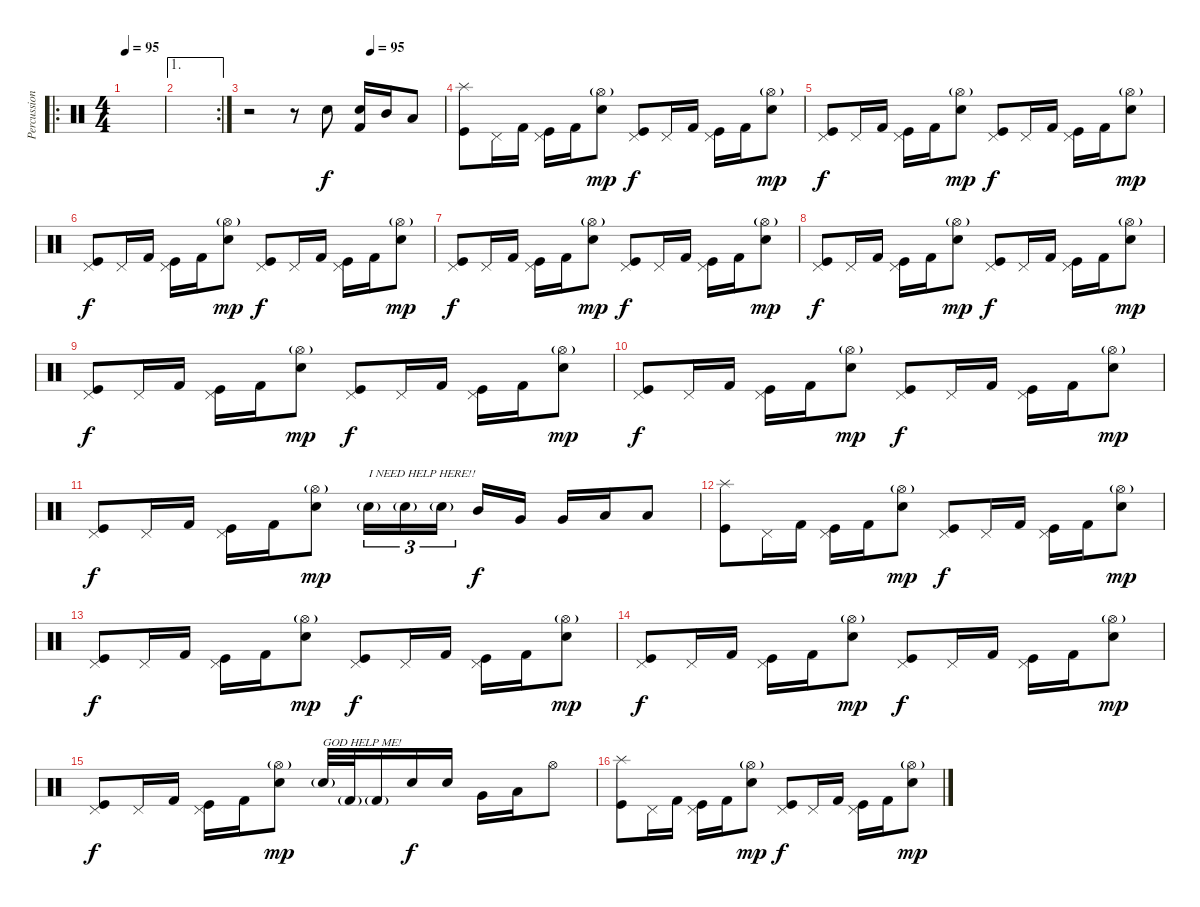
\track ("Percussion" "Percussion") {instrument percussion}
\staff {score}
\articulation defaults
\ro
\ts (4 4)
\tempo 95
\tempo 86
\tempo 95
\clef neutral
\ks c
|
\ae 1
\rc 2
|
\tempo (95 0.625)
r.2 r.8 "Electric Snare (hit)".8 ("Electric Snare (hit)" "Kick (hit) 2").16 "Mid Tom (hit)".16 "Low Tom (hit)".8 |
("Splash (hit)" "Kick (hit)").8 "Pedal Hi-Hat (hit)".16 "Kick (hit) 2".16 ("Pedal Hi-Hat (hit)" "Kick (hit)").16 "Kick (hit) 2".16 ("Hi-Hat (open)"{g} "Electric Snare (hit)").8{dy mp} ("Pedal Hi-Hat (hit)" "Kick (hit)").8{dy f} "Pedal Hi-Hat (hit)".16 "Kick (hit) 2".16 ("Pedal Hi-Hat (hit)" "Kick (hit)").16 "Kick (hit) 2".16 ("Hi-Hat (open)"{g} "Electric Snare (hit)").8{dy mp} |
("Pedal Hi-Hat (hit)" "Kick (hit)").8{dy f} "Pedal Hi-Hat (hit)".16 "Kick (hit) 2".16 ("Pedal Hi-Hat (hit)" "Kick (hit)").16 "Kick (hit) 2".16 ("Hi-Hat (open)"{g} "Electric Snare (hit)").8{dy mp} ("Pedal Hi-Hat (hit)" "Kick (hit)").8{dy f} "Pedal Hi-Hat (hit)".16 "Kick (hit) 2".16 ("Pedal Hi-Hat (hit)" "Kick (hit)").16 "Kick (hit) 2".16 ("Hi-Hat (open)"{g} "Electric Snare (hit)").8{dy mp} |
("Pedal Hi-Hat (hit)" "Kick (hit)").8{dy f} "Pedal Hi-Hat (hit)".16 "Kick (hit) 2".16 ("Pedal Hi-Hat (hit)" "Kick (hit)").16 "Kick (hit) 2".16 ("Hi-Hat (open)"{g} "Electric Snare (hit)").8{dy mp} ("Pedal Hi-Hat (hit)" "Kick (hit)").8{dy f} "Pedal Hi-Hat (hit)".16 "Kick (hit) 2".16 ("Pedal Hi-Hat (hit)" "Kick (hit)").16 "Kick (hit) 2".16 ("Hi-Hat (open)"{g} "Electric Snare (hit)").8{dy mp} |
("Pedal Hi-Hat (hit)" "Kick (hit)").8{dy f} "Pedal Hi-Hat (hit)".16 "Kick (hit) 2".16 ("Pedal Hi-Hat (hit)" "Kick (hit)").16 "Kick (hit) 2".16 ("Hi-Hat (open)"{g} "Electric Snare (hit)").8{dy mp} ("Pedal Hi-Hat (hit)" "Kick (hit)").8{dy f} "Pedal Hi-Hat (hit)".16 "Kick (hit) 2".16 ("Pedal Hi-Hat (hit)" "Kick (hit)").16 "Kick (hit) 2".16 ("Hi-Hat (open)"{g} "Electric Snare (hit)").8{dy mp} |
("Pedal Hi-Hat (hit)" "Kick (hit)").8{dy f} "Pedal Hi-Hat (hit)".16 "Kick (hit) 2".16 ("Pedal Hi-Hat (hit)" "Kick (hit)").16 "Kick (hit) 2".16 ("Hi-Hat (open)"{g} "Electric Snare (hit)").8{dy mp} ("Pedal Hi-Hat (hit)" "Kick (hit)").8{dy f} "Pedal Hi-Hat (hit)".16 "Kick (hit) 2".16 ("Pedal Hi-Hat (hit)" "Kick (hit)").16 "Kick (hit) 2".16 ("Hi-Hat (open)"{g} "Electric Snare (hit)").8{dy mp} |
("Pedal Hi-Hat (hit)" "Kick (hit)").8{dy f} "Pedal Hi-Hat (hit)".16 "Kick (hit) 2".16 ("Pedal Hi-Hat (hit)" "Kick (hit)").16 "Kick (hit) 2".16 ("Hi-Hat (open)"{g} "Electric Snare (hit)").8{dy mp} ("Pedal Hi-Hat (hit)" "Kick (hit)").8{dy f} "Pedal Hi-Hat (hit)".16 "Kick (hit) 2".16 ("Pedal Hi-Hat (hit)" "Kick (hit)").16 "Kick (hit) 2".16 ("Hi-Hat (open)"{g} "Electric Snare (hit)").8{dy mp} |
("Pedal Hi-Hat (hit)" "Kick (hit)").8{dy f} "Pedal Hi-Hat (hit)".16 "Kick (hit) 2".16 ("Pedal Hi-Hat (hit)" "Kick (hit)").16 "Kick (hit) 2".16 ("Hi-Hat (open)"{g} "Electric Snare (hit)").8{dy mp} ("Pedal Hi-Hat (hit)" "Kick (hit)").8{dy f} "Pedal Hi-Hat (hit)".16 "Kick (hit) 2".16 ("Pedal Hi-Hat (hit)" "Kick (hit)").16 "Kick (hit) 2".16 ("Hi-Hat (open)"{g} "Electric Snare (hit)").8{dy mp} |
("Pedal Hi-Hat (hit)" "Kick (hit)").8{dy f} "Pedal Hi-Hat (hit)".16 "Kick (hit) 2".16 ("Pedal Hi-Hat (hit)" "Kick (hit)").16 "Kick (hit) 2".16 ("Hi-Hat (open)"{g} "Electric Snare (hit)").8{dy mp} "Electric Snare (hit)"{g}.16{tu (3 2) txt "I NEED HELP HERE!!"} "Electric Snare (hit)"{g}.16{tu (3 2)} "Electric Snare (hit)"{g}.16{tu (3 2)} "Mid Tom (hit)".16{dy f} "Very Low Tom (hit)".16 "Very Low Tom (hit)".16 "Low Floor Tom (hit)".16 "Low Tom (hit)".8 |
("Splash (hit)" "Kick (hit)").8 "Pedal Hi-Hat (hit)".16 "Kick (hit) 2".16 ("Pedal Hi-Hat (hit)" "Kick (hit)").16 "Kick (hit) 2".16 ("Hi-Hat (open)"{g} "Electric Snare (hit)").8{dy mp} ("Pedal Hi-Hat (hit)" "Kick (hit)").8{dy f} "Pedal Hi-Hat (hit)".16 "Kick (hit) 2".16 ("Pedal Hi-Hat (hit)" "Kick (hit)").16 "Kick (hit) 2".16 ("Hi-Hat (open)"{g} "Electric Snare (hit)").8{dy mp} |
("Pedal Hi-Hat (hit)" "Kick (hit)").8{dy f} "Pedal Hi-Hat (hit)".16 "Kick (hit) 2".16 ("Pedal Hi-Hat (hit)" "Kick (hit)").16 "Kick (hit) 2".16 ("Hi-Hat (open)"{g} "Electric Snare (hit)").8{dy mp} ("Pedal Hi-Hat (hit)" "Kick (hit)").8{dy f} "Pedal Hi-Hat (hit)".16 "Kick (hit) 2".16 ("Pedal Hi-Hat (hit)" "Kick (hit)").16 "Kick (hit) 2".16 ("Hi-Hat (open)"{g} "Electric Snare (hit)").8{dy mp} |
("Pedal Hi-Hat (hit)" "Kick (hit)").8{dy f} "Pedal Hi-Hat (hit)".16 "Kick (hit) 2".16 ("Pedal Hi-Hat (hit)" "Kick (hit)").16 "Kick (hit) 2".16 ("Hi-Hat (open)"{g} "Electric Snare (hit)").8{dy mp} ("Pedal Hi-Hat (hit)" "Kick (hit)").8{dy f} "Pedal Hi-Hat (hit)".16 "Kick (hit) 2".16 ("Pedal Hi-Hat (hit)" "Kick (hit)").16 "Kick (hit) 2".16 ("Hi-Hat (open)"{g} "Electric Snare (hit)").8{dy mp} |
("Pedal Hi-Hat (hit)" "Kick (hit)").8{dy f} "Pedal Hi-Hat (hit)".16 "Kick (hit) 2".16 ("Pedal Hi-Hat (hit)" "Kick (hit)").16 "Kick (hit) 2".16 ("Hi-Hat (open)"{g} "Electric Snare (hit)").8{dy mp} "Electric Snare (hit)"{g}.32{txt "GOD HELP ME!"} "Kick (hit) 2"{g}.32 "Kick (hit) 2"{g}.16 "Electric Snare (hit)".16{dy f} "Electric Snare (hit)".16 "Very Low Tom (hit)".16 "Low Floor Tom (hit)".16 "Hi-Hat (open)".8 |
("Splash (hit)" "Kick (hit)").8 "Pedal Hi-Hat (hit)".16 "Kick (hit) 2".16 ("Pedal Hi-Hat (hit)" "Kick (hit)").16 "Kick (hit) 2".16 ("Hi-Hat (open)"{g} "Electric Snare (hit)").8{dy mp} ("Pedal Hi-Hat (hit)" "Kick (hit)").8{dy f} "Pedal Hi-Hat (hit)".16 "Kick (hit) 2".16 ("Pedal Hi-Hat (hit)" "Kick (hit)").16 "Kick (hit) 2".16 ("Hi-Hat (open)"{g} "Electric Snare (hit)").8{dy mp}
